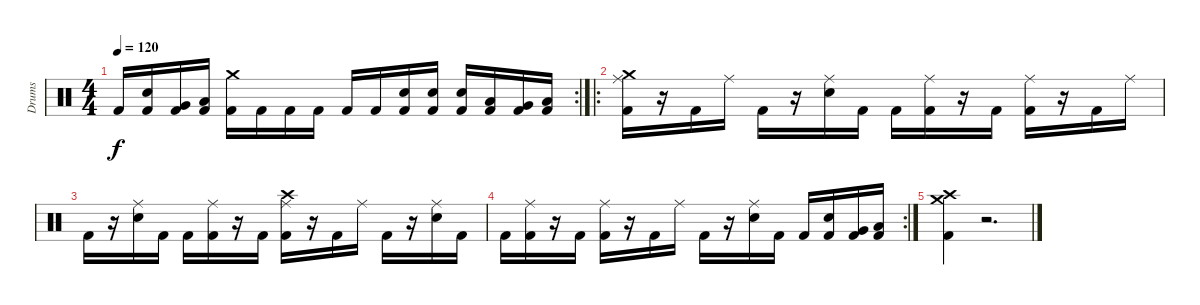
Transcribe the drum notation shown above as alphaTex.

\track ("Drums" "Drums") {instrument percussion}
\staff {score}
\articulation defaults
\rc 2
\ts (4 4)
\tempo 120
\clef neutral
\ks c "Kick (hit) 2".16{dy f}
("Kick (hit) 2" "Snare (hit) 2").16 ("Kick (hit) 2" "Very Low Tom (hit)").16 ("Kick (hit) 2" "Low Floor Tom (hit)").16 ("Kick (hit) 2" "Crash medium (hit)").16 "Kick (hit) 2".16 "Kick (hit) 2".16 "Kick (hit) 2".16 "Kick (hit) 2".16 "Kick (hit) 2".16 ("Kick (hit) 2" "Snare (hit) 2").16 ("Kick (hit) 2" "Snare (hit) 2").16 ("Kick (hit) 2" "Snare (hit) 2").16 ("Kick (hit) 2" "Low Tom (hit)").16 ("Kick (hit) 2" "Very Low Tom (hit)").16 ("Kick (hit) 2" "Low Floor Tom (hit)").16 |
\ro
("Kick (hit) 2" "Ride (middle)" "Crash medium (hit)").16 r.16 "Kick (hit) 2".16 "Ride (middle)".16 "Kick (hit) 2".16 r.16 ("Ride (middle)" "Snare (hit) 2").16 "Kick (hit) 2".16 "Kick (hit) 2".16 ("Kick (hit) 2" "Ride (middle)").16 r.16 "Kick (hit) 2".16 ("Kick (hit) 2" "Ride (middle)").16 r.16 "Kick (hit) 2".16 "Ride (middle)".16 |
"Kick (hit) 2".16 r.16 ("Ride (middle)" "Snare (hit) 2").16 "Kick (hit) 2".16 "Kick (hit) 2".16 ("Kick (hit) 2" "Ride (middle)").16 r.16 "Kick (hit) 2".16 ("Kick (hit) 2" "Ride (middle)" "Crash high (hit)").16 r.16 "Kick (hit) 2".16 "Ride (middle)".16 "Kick (hit) 2".16 r.16 ("Ride (middle)" "Snare (hit) 2").16 "Kick (hit) 2".16 |
\rc 2 "Kick (hit) 2".16
("Kick (hit) 2" "Ride (middle)").16 r.16 "Kick (hit) 2".16 ("Kick (hit) 2" "Ride (middle)").16 r.16 "Kick (hit) 2".16 "Ride (middle)".16 "Kick (hit) 2".16 r.16 ("Ride (middle)" "Snare (hit) 2").16 "Kick (hit) 2".16 "Kick (hit) 2".16 ("Kick (hit) 2" "Snare (hit) 2").16 ("Kick (hit) 2" "Very Low Tom (hit)").16 ("Kick (hit) 2" "Low Floor Tom (hit)").16 |
("Kick (hit) 2" "Crash high (hit)" "Crash medium (hit)").4 r.2{d}
